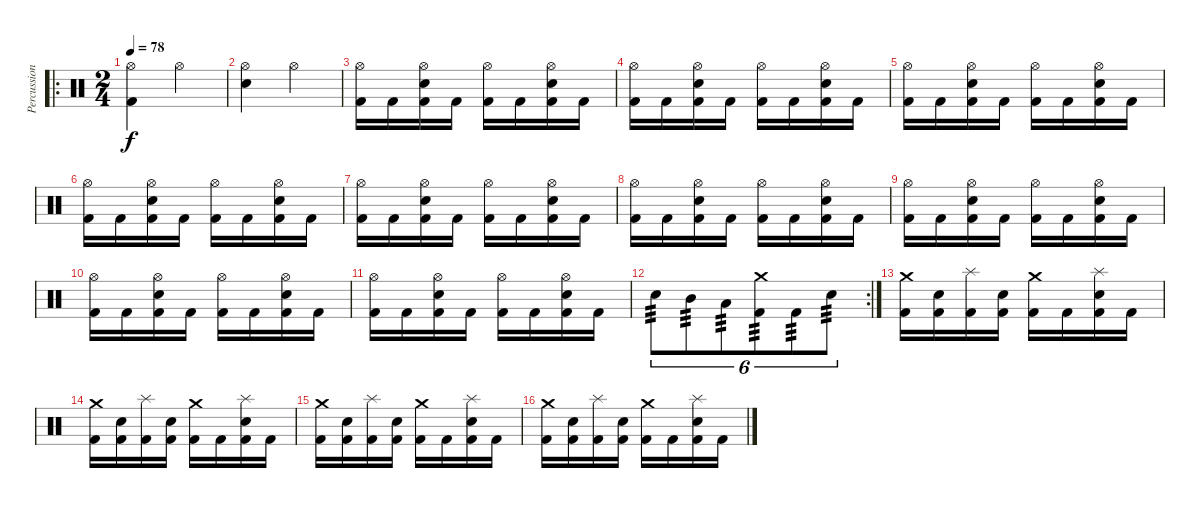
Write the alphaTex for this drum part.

\track ("Percussion" "Percussion") {instrument percussion}
\staff {score}
\articulation defaults
\ro
\ts (2 4)
\tempo 78
\clef neutral
\ks c
("Kick (hit) 2" "Hi-Hat (open)").4{dy f} "Hi-Hat (open)".4 |
("Snare (hit) 2" "Hi-Hat (open)").4 "Hi-Hat (open)".4 |
("Kick (hit) 2" "Hi-Hat (open)").16 "Kick (hit) 2".16 ("Kick (hit) 2" "Snare (hit) 2" "Hi-Hat (open)").16 "Kick (hit) 2".16 ("Kick (hit) 2" "Hi-Hat (open)").16 "Kick (hit) 2".16 ("Kick (hit) 2" "Snare (hit) 2" "Hi-Hat (open)").16 "Kick (hit) 2".16 |
("Kick (hit) 2" "Hi-Hat (open)").16 "Kick (hit) 2".16 ("Kick (hit) 2" "Snare (hit) 2" "Hi-Hat (open)").16 "Kick (hit) 2".16 ("Kick (hit) 2" "Hi-Hat (open)").16 "Kick (hit) 2".16 ("Kick (hit) 2" "Snare (hit) 2" "Hi-Hat (open)").16 "Kick (hit) 2".16 |
("Kick (hit) 2" "Hi-Hat (open)").16 "Kick (hit) 2".16 ("Kick (hit) 2" "Snare (hit) 2" "Hi-Hat (open)").16 "Kick (hit) 2".16 ("Kick (hit) 2" "Hi-Hat (open)").16 "Kick (hit) 2".16 ("Kick (hit) 2" "Snare (hit) 2" "Hi-Hat (open)").16 "Kick (hit) 2".16 |
("Kick (hit) 2" "Hi-Hat (open)").16 "Kick (hit) 2".16 ("Kick (hit) 2" "Snare (hit) 2" "Hi-Hat (open)").16 "Kick (hit) 2".16 ("Kick (hit) 2" "Hi-Hat (open)").16 "Kick (hit) 2".16 ("Kick (hit) 2" "Snare (hit) 2" "Hi-Hat (open)").16 "Kick (hit) 2".16 |
("Kick (hit) 2" "Hi-Hat (open)").16 "Kick (hit) 2".16 ("Kick (hit) 2" "Snare (hit) 2" "Hi-Hat (open)").16 "Kick (hit) 2".16 ("Kick (hit) 2" "Hi-Hat (open)").16 "Kick (hit) 2".16 ("Kick (hit) 2" "Snare (hit) 2" "Hi-Hat (open)").16 "Kick (hit) 2".16 |
("Kick (hit) 2" "Hi-Hat (open)").16 "Kick (hit) 2".16 ("Kick (hit) 2" "Snare (hit) 2" "Hi-Hat (open)").16 "Kick (hit) 2".16 ("Kick (hit) 2" "Hi-Hat (open)").16 "Kick (hit) 2".16 ("Kick (hit) 2" "Snare (hit) 2" "Hi-Hat (open)").16 "Kick (hit) 2".16 |
("Kick (hit) 2" "Hi-Hat (open)").16 "Kick (hit) 2".16 ("Kick (hit) 2" "Snare (hit) 2" "Hi-Hat (open)").16 "Kick (hit) 2".16 ("Kick (hit) 2" "Hi-Hat (open)").16 "Kick (hit) 2".16 ("Kick (hit) 2" "Snare (hit) 2" "Hi-Hat (open)").16 "Kick (hit) 2".16 |
("Kick (hit) 2" "Hi-Hat (open)").16 "Kick (hit) 2".16 ("Kick (hit) 2" "Snare (hit) 2" "Hi-Hat (open)").16 "Kick (hit) 2".16 ("Kick (hit) 2" "Hi-Hat (open)").16 "Kick (hit) 2".16 ("Kick (hit) 2" "Snare (hit) 2" "Hi-Hat (open)").16 "Kick (hit) 2".16 |
("Kick (hit) 2" "Hi-Hat (open)").16 "Kick (hit) 2".16 ("Kick (hit) 2" "Snare (hit) 2" "Hi-Hat (open)").16 "Kick (hit) 2".16 ("Kick (hit) 2" "Hi-Hat (open)").16 "Kick (hit) 2".16 ("Kick (hit) 2" "Snare (hit) 2" "Hi-Hat (open)").16 "Kick (hit) 2".16 |
\rc 2 "Snare (hit) 2".8{tu (6 4) tp 3} "Mid Tom (hit)".8{tu (6 4) tp 3} "Low Tom (hit)".8{tu (6 4) tp 3}
("Crash medium (hit)" "Kick (hit) 2").8{tu (6 4) tp 3} "Kick (hit) 2".8{tu (6 4) tp 3} "Snare (hit) 2".8{tu (6 4) tp 3} |
("Kick (hit) 2" "Crash medium (hit)").16 ("Kick (hit) 2" "Snare (hit) 2").16 ("Kick (hit) 2" "Splash (hit)").16 ("Kick (hit) 2" "Snare (hit) 2").16 ("Kick (hit) 2" "Crash medium (hit)").16 "Kick (hit) 2".16 ("Kick (hit) 2" "Snare (hit) 2" "Splash (hit)").16 "Kick (hit) 2".16 |
("Kick (hit) 2" "Crash medium (hit)").16 ("Kick (hit) 2" "Snare (hit) 2").16 ("Kick (hit) 2" "Splash (hit)").16 ("Kick (hit) 2" "Snare (hit) 2").16 ("Kick (hit) 2" "Crash medium (hit)").16 "Kick (hit) 2".16 ("Kick (hit) 2" "Snare (hit) 2" "Splash (hit)").16 "Kick (hit) 2".16 |
("Kick (hit) 2" "Crash medium (hit)").16 ("Kick (hit) 2" "Snare (hit) 2").16 ("Kick (hit) 2" "Splash (hit)").16 ("Kick (hit) 2" "Snare (hit) 2").16 ("Kick (hit) 2" "Crash medium (hit)").16 "Kick (hit) 2".16 ("Kick (hit) 2" "Snare (hit) 2" "Splash (hit)").16 "Kick (hit) 2".16 |
("Kick (hit) 2" "Crash medium (hit)").16 ("Kick (hit) 2" "Snare (hit) 2").16 ("Kick (hit) 2" "Splash (hit)").16 ("Kick (hit) 2" "Snare (hit) 2").16 ("Kick (hit) 2" "Crash medium (hit)").16 "Kick (hit) 2".16 ("Kick (hit) 2" "Snare (hit) 2" "Splash (hit)").16 "Kick (hit) 2".16
